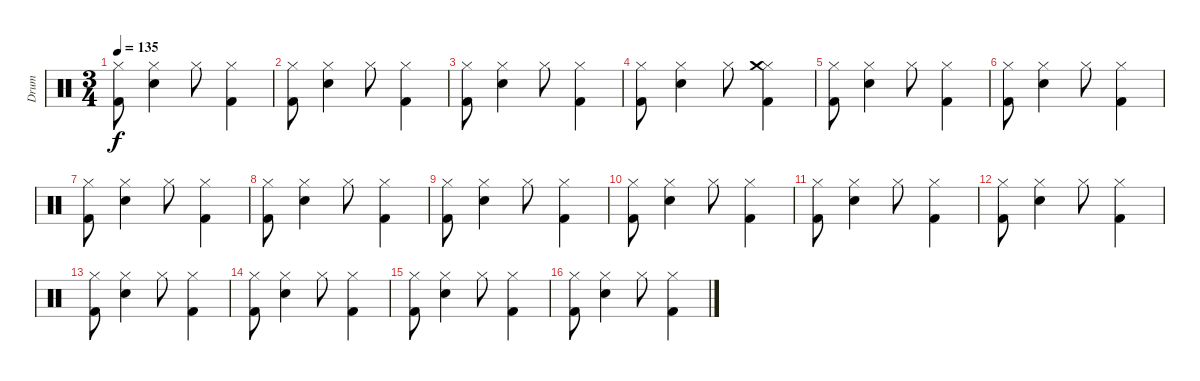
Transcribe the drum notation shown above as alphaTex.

\track ("Drum" "Drum") {instrument percussion}
\staff {score}
\articulation defaults
\ts (3 4)
\tempo 135
\clef neutral
\ks c
("Hi-Hat (closed)" "Kick (hit) 2").8{dy f} ("Hi-Hat (closed)" "Snare (hit) 2").4 "Hi-Hat (closed)".8 ("Hi-Hat (closed)" "Kick (hit) 2").4 |
("Hi-Hat (closed)" "Kick (hit) 2").8 ("Hi-Hat (closed)" "Snare (hit) 2").4 "Hi-Hat (closed)".8 ("Hi-Hat (closed)" "Kick (hit) 2").4 |
("Hi-Hat (closed)" "Kick (hit) 2").8 ("Hi-Hat (closed)" "Snare (hit) 2").4 "Hi-Hat (closed)".8 ("Hi-Hat (closed)" "Kick (hit) 2").4 |
("Hi-Hat (closed)" "Kick (hit) 2").8 ("Hi-Hat (closed)" "Snare (hit) 2").4 "Hi-Hat (closed)".8 ("Hi-Hat (closed)" "Crash medium (hit)" "Kick (hit) 2").4 |
("Hi-Hat (closed)" "Kick (hit) 2").8 ("Hi-Hat (closed)" "Snare (hit) 2").4 "Hi-Hat (closed)".8 ("Hi-Hat (closed)" "Kick (hit) 2").4 |
("Hi-Hat (closed)" "Kick (hit) 2").8 ("Hi-Hat (closed)" "Snare (hit) 2").4 "Hi-Hat (closed)".8 ("Hi-Hat (closed)" "Kick (hit) 2").4 |
("Hi-Hat (closed)" "Kick (hit) 2").8 ("Hi-Hat (closed)" "Snare (hit) 2").4 "Hi-Hat (closed)".8 ("Hi-Hat (closed)" "Kick (hit) 2").4 |
("Hi-Hat (closed)" "Kick (hit) 2").8 ("Hi-Hat (closed)" "Snare (hit) 2").4 "Hi-Hat (closed)".8 ("Hi-Hat (closed)" "Kick (hit) 2").4 |
("Hi-Hat (closed)" "Kick (hit) 2").8 ("Hi-Hat (closed)" "Snare (hit) 2").4 "Hi-Hat (closed)".8 ("Hi-Hat (closed)" "Kick (hit) 2").4 |
("Hi-Hat (closed)" "Kick (hit) 2").8 ("Hi-Hat (closed)" "Snare (hit) 2").4 "Hi-Hat (closed)".8 ("Hi-Hat (closed)" "Kick (hit) 2").4 |
("Hi-Hat (closed)" "Kick (hit) 2").8 ("Hi-Hat (closed)" "Snare (hit) 2").4 "Hi-Hat (closed)".8 ("Hi-Hat (closed)" "Kick (hit) 2").4 |
("Hi-Hat (closed)" "Kick (hit) 2").8 ("Hi-Hat (closed)" "Snare (hit) 2").4 "Hi-Hat (closed)".8 ("Hi-Hat (closed)" "Kick (hit) 2").4 |
("Hi-Hat (closed)" "Kick (hit) 2").8 ("Hi-Hat (closed)" "Snare (hit) 2").4 "Hi-Hat (closed)".8 ("Hi-Hat (closed)" "Kick (hit) 2").4 |
("Hi-Hat (closed)" "Kick (hit) 2").8 ("Hi-Hat (closed)" "Snare (hit) 2").4 "Hi-Hat (closed)".8 ("Hi-Hat (closed)" "Kick (hit) 2").4 |
("Hi-Hat (closed)" "Kick (hit) 2").8 ("Hi-Hat (closed)" "Snare (hit) 2").4 "Hi-Hat (closed)".8 ("Hi-Hat (closed)" "Kick (hit) 2").4 |
("Hi-Hat (closed)" "Kick (hit) 2").8 ("Hi-Hat (closed)" "Snare (hit) 2").4 "Hi-Hat (closed)".8 ("Hi-Hat (closed)" "Kick (hit) 2").4
